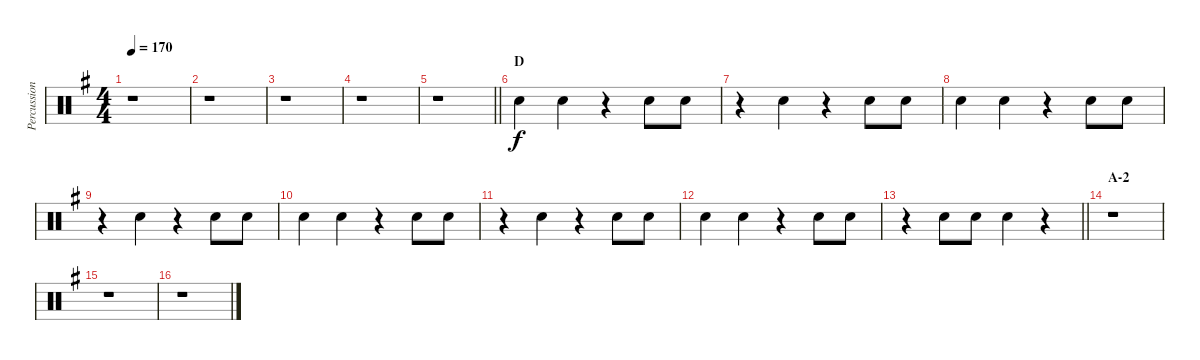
\track ("Percussion" "Percussion") {instrument percussion}
\staff {score}
\articulation defaults
\ts (4 4)
\tempo 170
\clef neutral
\ks g
r.1{dy f} |
r.1 |
r.1 |
r.1 |
\barLineRight lightlight
r.1 |
\section ("" "D")
"Hand Clap (hit)".4 "Hand Clap (hit)".4 r.4 "Hand Clap (hit)".8 "Hand Clap (hit)".8 |
r.4 "Hand Clap (hit)".4 r.4 "Hand Clap (hit)".8 "Hand Clap (hit)".8 |
"Hand Clap (hit)".4 "Hand Clap (hit)".4 r.4 "Hand Clap (hit)".8 "Hand Clap (hit)".8 |
r.4 "Hand Clap (hit)".4 r.4 "Hand Clap (hit)".8 "Hand Clap (hit)".8 |
"Hand Clap (hit)".4 "Hand Clap (hit)".4 r.4 "Hand Clap (hit)".8 "Hand Clap (hit)".8 |
r.4 "Hand Clap (hit)".4 r.4 "Hand Clap (hit)".8 "Hand Clap (hit)".8 |
"Hand Clap (hit)".4 "Hand Clap (hit)".4 r.4 "Hand Clap (hit)".8 "Hand Clap (hit)".8 |
\barLineRight lightlight
r.4 "Hand Clap (hit)".8 "Hand Clap (hit)".8 "Hand Clap (hit)".4 r.4 |
\section ("" "A-2")
r.1 |
r.1 |
r.1
